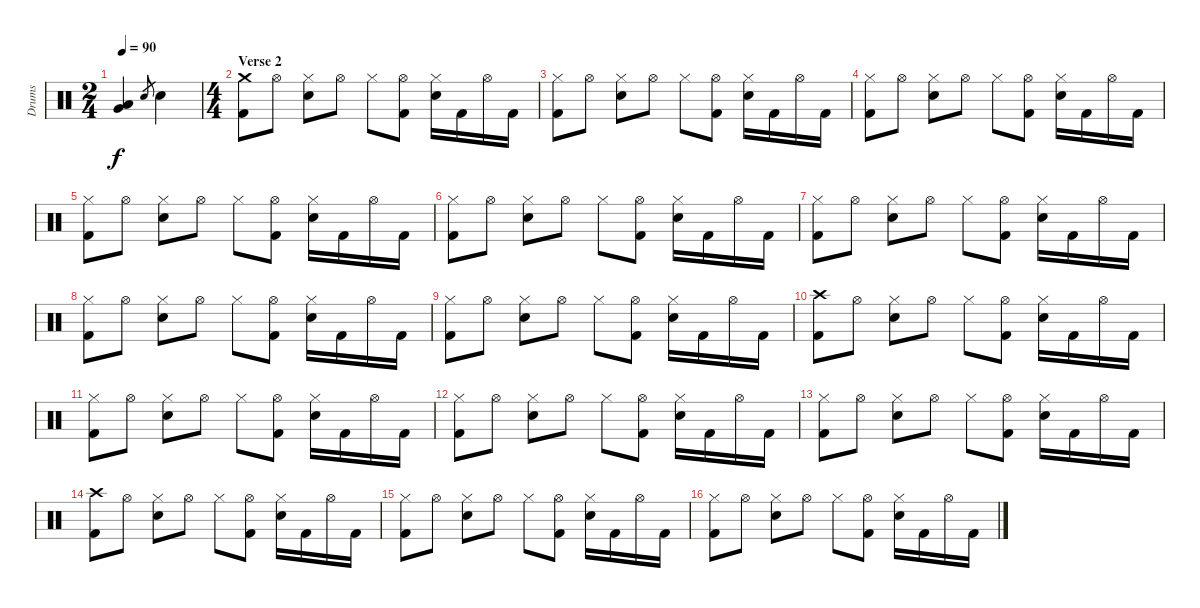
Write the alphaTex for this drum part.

\track ("Drums" "Drums") {instrument percussion}
\staff {score}
\articulation defaults
\ts (2 4)
\tempo 90
\clef neutral
\ks c
("Low Tom (hit)" "Very Low Tom (hit)").4{dy f} "Electric Snare (hit)".8{gr} "Electric Snare (hit)".4 |
\ts (4 4)
\section ("" "Verse 2")
("Crash medium (hit)" "Kick (hit) 2").8 "Hi-Hat (open)".8 ("Hi-Hat (closed)" "Electric Snare (hit)").8 "Hi-Hat (open)".8 "Hi-Hat (closed)".8 ("Hi-Hat (open)" "Kick (hit) 2").8 ("Hi-Hat (closed)" "Electric Snare (hit)").16 "Kick (hit) 2".16 "Hi-Hat (open)".16 "Kick (hit) 2".16 |
("Hi-Hat (closed)" "Kick (hit) 2").8 "Hi-Hat (open)".8 ("Hi-Hat (closed)" "Electric Snare (hit)").8 "Hi-Hat (open)".8 "Hi-Hat (closed)".8 ("Hi-Hat (open)" "Kick (hit) 2").8 ("Hi-Hat (closed)" "Electric Snare (hit)").16 "Kick (hit) 2".16 "Hi-Hat (open)".16 "Kick (hit) 2".16 |
("Hi-Hat (closed)" "Kick (hit) 2").8 "Hi-Hat (open)".8 ("Hi-Hat (closed)" "Electric Snare (hit)").8 "Hi-Hat (open)".8 "Hi-Hat (closed)".8 ("Hi-Hat (open)" "Kick (hit) 2").8 ("Hi-Hat (closed)" "Electric Snare (hit)").16 "Kick (hit) 2".16 "Hi-Hat (open)".16 "Kick (hit) 2".16 |
("Hi-Hat (closed)" "Kick (hit) 2").8 "Hi-Hat (open)".8 ("Hi-Hat (closed)" "Electric Snare (hit)").8 "Hi-Hat (open)".8 "Hi-Hat (closed)".8 ("Hi-Hat (open)" "Kick (hit) 2").8 ("Hi-Hat (closed)" "Electric Snare (hit)").16 "Kick (hit) 2".16 "Hi-Hat (open)".16 "Kick (hit) 2".16 |
("Hi-Hat (closed)" "Kick (hit) 2").8 "Hi-Hat (open)".8 ("Hi-Hat (closed)" "Electric Snare (hit)").8 "Hi-Hat (open)".8 "Hi-Hat (closed)".8 ("Hi-Hat (open)" "Kick (hit) 2").8 ("Hi-Hat (closed)" "Electric Snare (hit)").16 "Kick (hit) 2".16 "Hi-Hat (open)".16 "Kick (hit) 2".16 |
("Hi-Hat (closed)" "Kick (hit) 2").8 "Hi-Hat (open)".8 ("Hi-Hat (closed)" "Electric Snare (hit)").8 "Hi-Hat (open)".8 "Hi-Hat (closed)".8 ("Hi-Hat (open)" "Kick (hit) 2").8 ("Hi-Hat (closed)" "Electric Snare (hit)").16 "Kick (hit) 2".16 "Hi-Hat (open)".16 "Kick (hit) 2".16 |
("Hi-Hat (closed)" "Kick (hit) 2").8 "Hi-Hat (open)".8 ("Hi-Hat (closed)" "Electric Snare (hit)").8 "Hi-Hat (open)".8 "Hi-Hat (closed)".8 ("Hi-Hat (open)" "Kick (hit) 2").8 ("Hi-Hat (closed)" "Electric Snare (hit)").16 "Kick (hit) 2".16 "Hi-Hat (open)".16 "Kick (hit) 2".16 |
("Hi-Hat (closed)" "Kick (hit) 2").8 "Hi-Hat (open)".8 ("Hi-Hat (closed)" "Electric Snare (hit)").8 "Hi-Hat (open)".8 "Hi-Hat (closed)".8 ("Hi-Hat (open)" "Kick (hit) 2").8 ("Hi-Hat (closed)" "Electric Snare (hit)").16 "Kick (hit) 2".16 "Hi-Hat (open)".16 "Kick (hit) 2".16 |
("Crash high (hit)" "Kick (hit) 2").8 "Hi-Hat (open)".8 ("Hi-Hat (closed)" "Electric Snare (hit)").8 "Hi-Hat (open)".8 "Hi-Hat (closed)".8 ("Hi-Hat (open)" "Kick (hit) 2").8 ("Hi-Hat (closed)" "Electric Snare (hit)").16 "Kick (hit) 2".16 "Hi-Hat (open)".16 "Kick (hit) 2".16 |
("Hi-Hat (closed)" "Kick (hit) 2").8 "Hi-Hat (open)".8 ("Hi-Hat (closed)" "Electric Snare (hit)").8 "Hi-Hat (open)".8 "Hi-Hat (closed)".8 ("Hi-Hat (open)" "Kick (hit) 2").8 ("Hi-Hat (closed)" "Electric Snare (hit)").16 "Kick (hit) 2".16 "Hi-Hat (open)".16 "Kick (hit) 2".16 |
("Hi-Hat (closed)" "Kick (hit) 2").8 "Hi-Hat (open)".8 ("Hi-Hat (closed)" "Electric Snare (hit)").8 "Hi-Hat (open)".8 "Hi-Hat (closed)".8 ("Hi-Hat (open)" "Kick (hit) 2").8 ("Hi-Hat (closed)" "Electric Snare (hit)").16 "Kick (hit) 2".16 "Hi-Hat (open)".16 "Kick (hit) 2".16 |
("Hi-Hat (closed)" "Kick (hit) 2").8 "Hi-Hat (open)".8 ("Hi-Hat (closed)" "Electric Snare (hit)").8 "Hi-Hat (open)".8 "Hi-Hat (closed)".8 ("Hi-Hat (open)" "Kick (hit) 2").8 ("Hi-Hat (closed)" "Electric Snare (hit)").16 "Kick (hit) 2".16 "Hi-Hat (open)".16 "Kick (hit) 2".16 |
("Crash high (hit)" "Kick (hit) 2").8 "Hi-Hat (open)".8 ("Hi-Hat (closed)" "Electric Snare (hit)").8 "Hi-Hat (open)".8 "Hi-Hat (closed)".8 ("Hi-Hat (open)" "Kick (hit) 2").8 ("Hi-Hat (closed)" "Electric Snare (hit)").16 "Kick (hit) 2".16 "Hi-Hat (open)".16 "Kick (hit) 2".16 |
("Hi-Hat (closed)" "Kick (hit) 2").8 "Hi-Hat (open)".8 ("Hi-Hat (closed)" "Electric Snare (hit)").8 "Hi-Hat (open)".8 "Hi-Hat (closed)".8 ("Hi-Hat (open)" "Kick (hit) 2").8 ("Hi-Hat (closed)" "Electric Snare (hit)").16 "Kick (hit) 2".16 "Hi-Hat (open)".16 "Kick (hit) 2".16 |
("Hi-Hat (closed)" "Kick (hit) 2").8 "Hi-Hat (open)".8 ("Hi-Hat (closed)" "Electric Snare (hit)").8 "Hi-Hat (open)".8 "Hi-Hat (closed)".8 ("Hi-Hat (open)" "Kick (hit) 2").8 ("Hi-Hat (closed)" "Electric Snare (hit)").16 "Kick (hit) 2".16 "Hi-Hat (open)".16 "Kick (hit) 2".16
